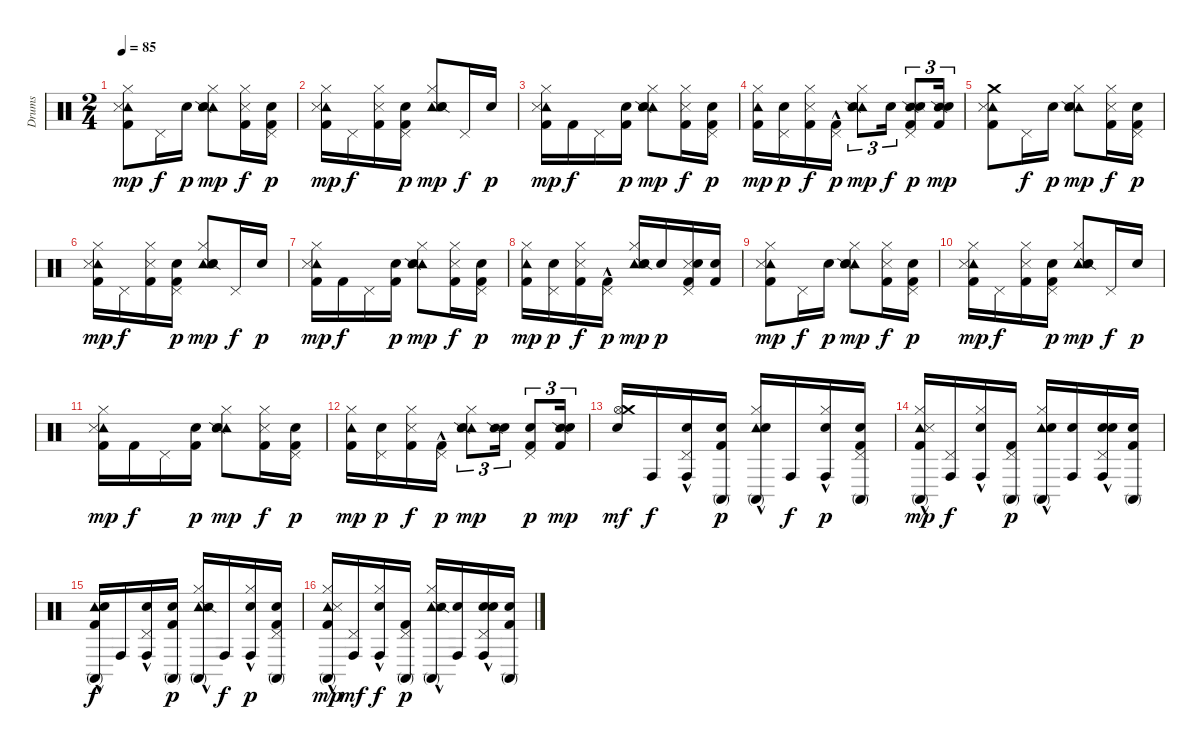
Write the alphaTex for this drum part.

\track ("Drums" "Drums") {instrument percussion}
\staff {score}
\articulation defaults
\ts (2 4)
\tempo 85
\clef neutral
\ks c
("Tambourine (hit)" "Metronome (hit)" "Kick (hit) 2" "Hi-Hat (closed)").8{dy mp} "Pedal Hi-Hat (hit)".16{dy f} "Electric Snare (hit)".16{dy p} ("Tambourine (hit)" "Snare (hit) 2" "Hi-Hat (closed)" "Snare (side stick) 2").8{dy mp} ("Hi-Hat (closed)" "Metronome (hit)" "Kick (hit) 2").16{dy f} ("Electric Snare (hit)" "Pedal Hi-Hat (hit)" "Kick (hit) 2").16{dy p} |
("Tambourine (hit)" "Metronome (hit)" "Kick (hit) 2" "Hi-Hat (closed)").16{dy mp} "Pedal Hi-Hat (hit)".16{dy f} ("Hi-Hat (closed)" "Metronome (hit)" "Kick (hit) 2").16 ("Electric Snare (hit)" "Pedal Hi-Hat (hit)" "Kick (hit) 2").16{dy p} ("Tambourine (hit)" "Snare (side stick) 2" "Snare (hit) 2" "Hi-Hat (closed)").8{dy mp} "Pedal Hi-Hat (hit)".16{dy f} "Electric Snare (hit)".16{dy p} |
("Tambourine (hit)" "Metronome (hit)" "Kick (hit) 2" "Hi-Hat (closed)").16{dy mp} "Kick (hit) 2".16{dy f} "Pedal Hi-Hat (hit)".16 ("Electric Snare (hit)" "Kick (hit) 2").16{dy p} ("Tambourine (hit)" "Snare (hit) 2" "Snare (side stick) 2" "Hi-Hat (closed)").8{dy mp} ("Metronome (hit)" "Kick (hit) 2" "Hi-Hat (closed)").16{dy f} ("Kick (hit) 2" "Electric Snare (hit)" "Pedal Hi-Hat (hit)").16{dy p} |
("Kick (hit) 2" "Tambourine (hit)" "Hi-Hat (closed)").16{dy mp} ("Snare (hit) 2" "Pedal Hi-Hat (hit)").16{dy p} ("Metronome (hit)" "Kick (hit) 2" "Hi-Hat (closed)").16{dy f} ("Kick (hit) 2"{hac} "Pedal Hi-Hat (hit)").16{dy p} ("Tambourine (hit)" "Snare (hit) 2" "Snare (side stick) 2" "Hi-Hat (closed)").8{tu (3 2) dy mp} "Electric Snare (hit)".16{tu (3 2) dy f} ("Snare (side stick) 2" "Metronome (hit)" "Kick (hit) 2" "Electric Snare (hit)" "Pedal Hi-Hat (hit)").8{tu (3 2) dy p} ("Snare (side stick) 2" "Kick (hit) 2" "Electric Snare (hit)").16{tu (3 2) dy mp} |
("Crash medium (hit)" "Tambourine (hit)" "Metronome (hit)" "Kick (hit) 2").8 "Pedal Hi-Hat (hit)".16{dy f} "Electric Snare (hit)".16{dy p} ("Tambourine (hit)" "Snare (hit) 2" "Hi-Hat (closed)" "Snare (side stick) 2").8{dy mp} ("Hi-Hat (closed)" "Metronome (hit)" "Kick (hit) 2").16{dy f} ("Electric Snare (hit)" "Pedal Hi-Hat (hit)" "Kick (hit) 2").16{dy p} |
("Tambourine (hit)" "Metronome (hit)" "Kick (hit) 2" "Hi-Hat (closed)").16{dy mp} "Pedal Hi-Hat (hit)".16{dy f} ("Hi-Hat (closed)" "Metronome (hit)" "Kick (hit) 2").16 ("Electric Snare (hit)" "Pedal Hi-Hat (hit)" "Kick (hit) 2").16{dy p} ("Tambourine (hit)" "Snare (side stick) 2" "Snare (hit) 2" "Hi-Hat (closed)").8{dy mp} "Pedal Hi-Hat (hit)".16{dy f} "Electric Snare (hit)".16{dy p} |
("Tambourine (hit)" "Metronome (hit)" "Kick (hit) 2" "Hi-Hat (closed)").16{dy mp} "Kick (hit) 2".16{dy f} "Pedal Hi-Hat (hit)".16 ("Electric Snare (hit)" "Kick (hit) 2").16{dy p} ("Tambourine (hit)" "Snare (hit) 2" "Snare (side stick) 2" "Hi-Hat (closed)").8{dy mp} ("Metronome (hit)" "Kick (hit) 2" "Hi-Hat (closed)").16{dy f} ("Kick (hit) 2" "Electric Snare (hit)" "Pedal Hi-Hat (hit)").16{dy p} |
("Kick (hit) 2" "Tambourine (hit)" "Hi-Hat (closed)").16{dy mp} ("Snare (hit) 2" "Pedal Hi-Hat (hit)").16{dy p} ("Metronome (hit)" "Kick (hit) 2" "Hi-Hat (closed)").16{dy f} ("Kick (hit) 2"{hac} "Pedal Hi-Hat (hit)").16{dy p} ("Tambourine (hit)" "Snare (hit) 2" "Snare (side stick) 2" "Hi-Hat (closed)").16{dy mp} "Electric Snare (hit)".16{dy p} ("Metronome (hit)" "Kick (hit) 2" "Electric Snare (hit)" "Pedal Hi-Hat (hit)").16 ("Kick (hit) 2" "Electric Snare (hit)").16 |
("Tambourine (hit)" "Metronome (hit)" "Kick (hit) 2" "Hi-Hat (closed)").8{dy mp} "Pedal Hi-Hat (hit)".16{dy f} "Electric Snare (hit)".16{dy p} ("Tambourine (hit)" "Snare (hit) 2" "Hi-Hat (closed)" "Snare (side stick) 2").8{dy mp} ("Hi-Hat (closed)" "Metronome (hit)" "Kick (hit) 2").16{dy f} ("Electric Snare (hit)" "Pedal Hi-Hat (hit)" "Kick (hit) 2").16{dy p} |
("Tambourine (hit)" "Metronome (hit)" "Kick (hit) 2" "Hi-Hat (closed)").16{dy mp} "Pedal Hi-Hat (hit)".16{dy f} ("Hi-Hat (closed)" "Metronome (hit)" "Kick (hit) 2").16 ("Electric Snare (hit)" "Pedal Hi-Hat (hit)" "Kick (hit) 2").16{dy p} ("Tambourine (hit)" "Snare (side stick) 2" "Snare (hit) 2" "Hi-Hat (closed)").8{dy mp} "Pedal Hi-Hat (hit)".16{dy f} "Electric Snare (hit)".16{dy p} |
("Tambourine (hit)" "Metronome (hit)" "Kick (hit) 2" "Hi-Hat (closed)").16{dy mp} "Kick (hit) 2".16{dy f} "Pedal Hi-Hat (hit)".16 ("Electric Snare (hit)" "Kick (hit) 2").16{dy p} ("Tambourine (hit)" "Snare (hit) 2" "Snare (side stick) 2" "Hi-Hat (closed)").8{dy mp} ("Metronome (hit)" "Kick (hit) 2" "Hi-Hat (closed)").16{dy f} ("Kick (hit) 2" "Electric Snare (hit)" "Pedal Hi-Hat (hit)").16{dy p} |
("Kick (hit) 2" "Tambourine (hit)" "Hi-Hat (closed)").16{dy mp} ("Snare (hit) 2" "Pedal Hi-Hat (hit)").16{dy p} ("Kick (hit) 2" "Hi-Hat (closed)" "Metronome (hit)").16{dy f} ("Kick (hit) 2"{hac} "Pedal Hi-Hat (hit)").16{dy p} ("Tambourine (hit)" "Snare (hit) 2" "Snare (side stick) 2" "Hi-Hat (closed)").8{tu (3 2) dy mp} ("Electric Snare (hit)" "Snare (side stick) 2").16{tu (3 2)} ("Kick (hit) 2" "Electric Snare (hit)" "Pedal Hi-Hat (hit)").8{tu (3 2) dy p} ("Snare (side stick) 2" "Kick (hit) 2" "Electric Snare (hit)").16{tu (3 2) dy mp} |
("Hi-Hat (open)" "Crash medium (hit)" "Snare (hit)").16{dy mf} "Conga high (hit)".16{dy f} ("Conga high (hit)"{hac} "Pedal Hi-Hat (hit)" "Snare (hit) 2").16 ("Conga high (mute)" "Electric Snare (hit)" "Kick (hit) 2").16{dy p} ("Conga high (mute)"{hac} "Tambourine (hit)" "Metronome (bell)" "Hi-Hat (closed)").16 "Conga high (hit)".16{dy f} ("Conga high (hit)"{hac} "Hi-Hat (closed)" "Snare (hit) 2").16{dy p} ("Conga high (mute)" "Electric Snare (hit)" "Kick (hit) 2" "Pedal Hi-Hat (hit)").16 |
("Conga high (mute)"{hac} "Tambourine (hit)" "Metronome (hit)" "Kick (hit) 2"{hac} "Hi-Hat (closed)").16{dy mp} ("Conga high (hit)" "Pedal Hi-Hat (hit)").16{dy f} ("Conga high (hit)"{hac} "Hi-Hat (closed)" "Snare (hit) 2").16 ("Conga high (mute)" "Kick (hit) 2" "Pedal Hi-Hat (hit)").16{dy p} ("Conga high (mute)"{hac} "Tambourine (hit)" "Metronome (bell)" "Hi-Hat (closed)").16 ("Conga high (hit)" "Electric Snare (hit)").16 ("Conga high (hit)"{hac} "Snare (hit) 2" "Electric Snare (hit)" "Pedal Hi-Hat (hit)").16 ("Conga high (mute)" "Kick (hit) 2" "Electric Snare (hit)").16 |
("Conga high (mute)"{hac} "Tambourine (hit)" "Kick (hit) 2"{hac} "Snare (hit)").16{dy f} "Conga high (hit)".16 ("Conga high (hit)"{hac} "Pedal Hi-Hat (hit)" "Snare (hit) 2").16 ("Conga high (mute)" "Electric Snare (hit)" "Kick (hit) 2").16{dy p} ("Conga high (mute)"{hac} "Tambourine (hit)" "Snare (side stick) 2" "Hi-Hat (closed)").16 "Conga high (hit)".16{dy f} ("Conga high (hit)"{hac} "Hi-Hat (closed)" "Snare (hit) 2").16{dy p} ("Conga high (mute)" "Electric Snare (hit)" "Kick (hit) 2" "Pedal Hi-Hat (hit)").16 |
("Conga high (mute)"{hac} "Tambourine (hit)" "Metronome (hit)" "Kick (hit) 2"{hac} "Hi-Hat (closed)").16{dy mp} ("Conga high (hit)" "Pedal Hi-Hat (hit)").16{dy mf} ("Conga high (hit)"{hac} "Hi-Hat (closed)" "Snare (hit) 2").16{dy f} ("Conga high (mute)" "Kick (hit) 2" "Pedal Hi-Hat (hit)").16{dy p} ("Conga high (mute)"{hac} "Tambourine (hit)" "Snare (side stick) 2" "Hi-Hat (closed)").16 ("Conga high (hit)" "Electric Snare (hit)").16 ("Conga high (hit)"{hac} "Snare (hit) 2" "Electric Snare (hit)" "Pedal Hi-Hat (hit)").16 ("Conga high (mute)" "Kick (hit) 2" "Electric Snare (hit)").16
